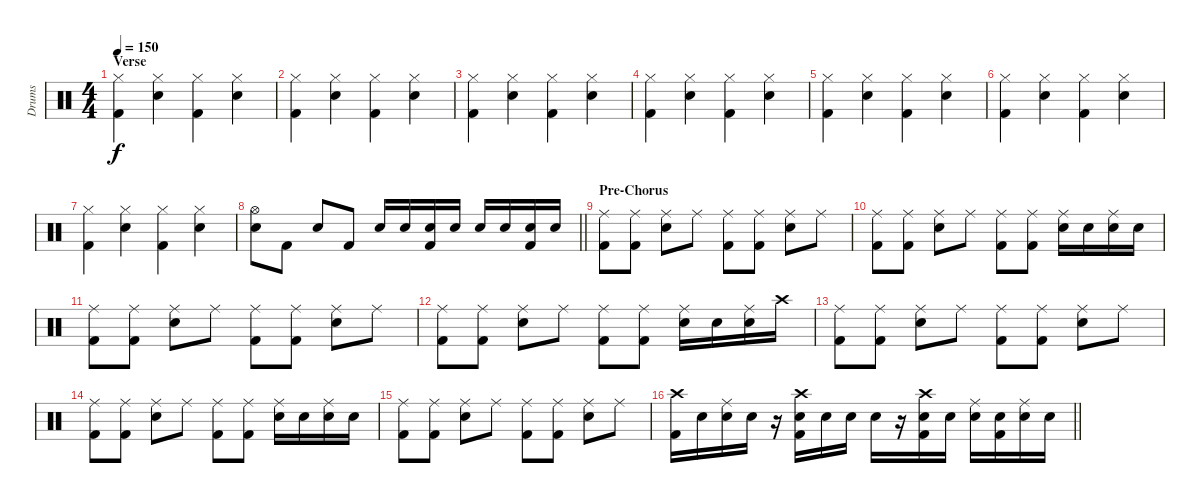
\track ("Drums" "Drums") {instrument percussion}
\staff {score}
\articulation defaults
\ts (4 4)
\section ("" "Verse")
\tempo 150
\clef neutral
\ks c
("Hi-Hat (closed)" "Kick (hit) 2").4{dy f} ("Hi-Hat (closed)" "Snare (hit) 2").4 ("Hi-Hat (closed)" "Kick (hit) 2").4 ("Hi-Hat (closed)" "Snare (hit) 2").4 |
("Hi-Hat (closed)" "Kick (hit) 2").4 ("Hi-Hat (closed)" "Snare (hit) 2").4 ("Hi-Hat (closed)" "Kick (hit) 2").4 ("Hi-Hat (closed)" "Snare (hit) 2").4 |
("Hi-Hat (closed)" "Kick (hit) 2").4 ("Hi-Hat (closed)" "Snare (hit) 2").4 ("Hi-Hat (closed)" "Kick (hit) 2").4 ("Hi-Hat (closed)" "Snare (hit) 2").4 |
("Hi-Hat (closed)" "Kick (hit) 2").4 ("Hi-Hat (closed)" "Snare (hit) 2").4 ("Hi-Hat (closed)" "Kick (hit) 2").4 ("Hi-Hat (closed)" "Snare (hit) 2").4 |
("Hi-Hat (closed)" "Kick (hit) 2").4 ("Hi-Hat (closed)" "Snare (hit) 2").4 ("Hi-Hat (closed)" "Kick (hit) 2").4 ("Hi-Hat (closed)" "Snare (hit) 2").4 |
("Hi-Hat (closed)" "Kick (hit) 2").4 ("Hi-Hat (closed)" "Snare (hit) 2").4 ("Hi-Hat (closed)" "Kick (hit) 2").4 ("Hi-Hat (closed)" "Snare (hit) 2").4 |
("Hi-Hat (closed)" "Kick (hit) 2").4 ("Hi-Hat (closed)" "Snare (hit) 2").4 ("Hi-Hat (closed)" "Kick (hit) 2").4 ("Hi-Hat (closed)" "Snare (hit) 2").4 |
\barLineRight lightlight
("Hi-Hat (open)" "Snare (hit) 2").8 "Kick (hit) 2".8 "Snare (hit) 2".8 "Kick (hit) 2".8 "Snare (hit) 2".16 "Snare (hit) 2".16 ("Snare (hit) 2" "Kick (hit) 2").16 "Snare (hit) 2".16 "Snare (hit) 2".16 "Snare (hit) 2".16 ("Snare (hit) 2" "Kick (hit) 2").16 "Snare (hit) 2".16 |
\section ("" "Pre-Chorus")
("Ride (middle)" "Kick (hit) 2").8 ("Ride (middle)" "Kick (hit) 2").8 ("Ride (middle)" "Snare (hit) 2").8 "Ride (middle)".8 ("Ride (middle)" "Kick (hit) 2").8 ("Ride (middle)" "Kick (hit) 2").8 ("Ride (middle)" "Snare (hit) 2").8 "Ride (middle)".8 |
("Ride (middle)" "Kick (hit) 2").8 ("Ride (middle)" "Kick (hit) 2").8 ("Ride (middle)" "Snare (hit) 2").8 "Ride (middle)".8 ("Ride (middle)" "Kick (hit) 2").8 ("Ride (middle)" "Kick (hit) 2").8 ("Ride (middle)" "Snare (hit) 2").16 "Snare (hit) 2".16 ("Ride (middle)" "Snare (hit) 2").16 "Snare (hit) 2".16 |
("Ride (middle)" "Kick (hit) 2").8 ("Ride (middle)" "Kick (hit) 2").8 ("Ride (middle)" "Snare (hit) 2").8 "Ride (middle)".8 ("Ride (middle)" "Kick (hit) 2").8 ("Ride (middle)" "Kick (hit) 2").8 ("Ride (middle)" "Snare (hit) 2").8 "Ride (middle)".8 |
("Ride (middle)" "Kick (hit) 2").8 ("Ride (middle)" "Kick (hit) 2").8 ("Ride (middle)" "Snare (hit) 2").8 "Ride (middle)".8 ("Ride (middle)" "Kick (hit) 2").8 ("Ride (middle)" "Kick (hit) 2").8 ("Ride (middle)" "Snare (hit) 2").16 "Snare (hit) 2".16 ("Ride (middle)" "Snare (hit) 2").16 "Crash high (hit)".16 |
("Ride (middle)" "Kick (hit) 2").8 ("Ride (middle)" "Kick (hit) 2").8 ("Ride (middle)" "Snare (hit) 2").8 "Ride (middle)".8 ("Ride (middle)" "Kick (hit) 2").8 ("Ride (middle)" "Kick (hit) 2").8 ("Ride (middle)" "Snare (hit) 2").8 "Ride (middle)".8 |
("Ride (middle)" "Kick (hit) 2").8 ("Ride (middle)" "Kick (hit) 2").8 ("Ride (middle)" "Snare (hit) 2").8 "Ride (middle)".8 ("Ride (middle)" "Kick (hit) 2").8 ("Ride (middle)" "Kick (hit) 2").8 ("Ride (middle)" "Snare (hit) 2").16 "Snare (hit) 2".16 ("Ride (middle)" "Snare (hit) 2").16 "Snare (hit) 2".16 |
("Ride (middle)" "Kick (hit) 2").8 ("Ride (middle)" "Kick (hit) 2").8 ("Ride (middle)" "Snare (hit) 2").8 "Ride (middle)".8 ("Ride (middle)" "Kick (hit) 2").8 ("Ride (middle)" "Kick (hit) 2").8 ("Ride (middle)" "Snare (hit) 2").8 "Ride (middle)".8 |
\barLineRight lightlight
("Crash high (hit)" "Kick (hit) 2").16 "Snare (hit) 2".16 ("Ride (middle)" "Snare (hit) 2").16 "Snare (hit) 2".16 r.16 ("Crash high (hit)" "Snare (hit) 2" "Kick (hit) 2").16 "Snare (hit) 2".16 "Snare (hit) 2".16 "Snare (hit) 2".16 r.16 ("Crash high (hit)" "Snare (hit) 2" "Kick (hit) 2").16 "Snare (hit) 2".16 ("Ride (middle)" "Snare (hit) 2").16 ("Snare (hit) 2" "Kick (hit) 2").16 ("Ride (middle)" "Snare (hit) 2").16 "Snare (hit) 2".16
